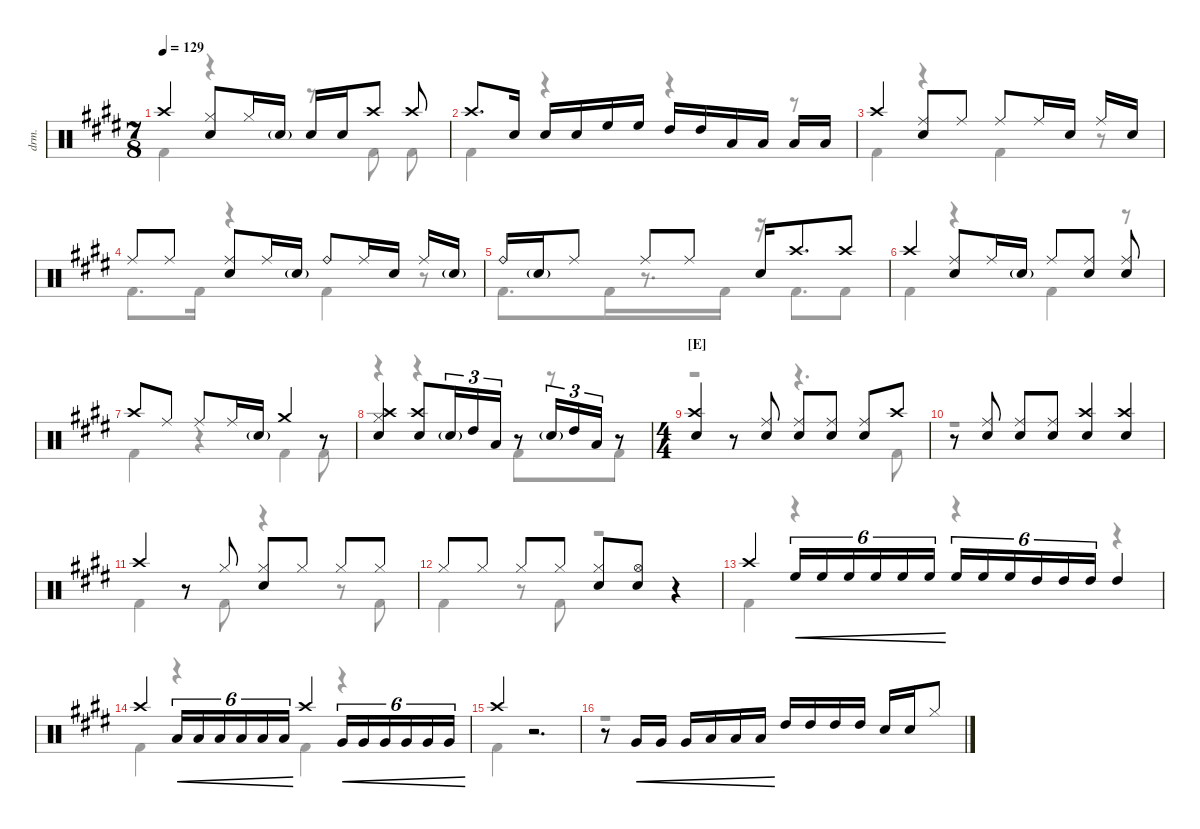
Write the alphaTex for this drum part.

\defaultSystemsLayout 4
\hideDynamics
\bracketExtendMode nobrackets
\track ("Drums" "drm.") {instrument percussion}
\staff {score}
\articulation defaults
\voice
\ts (7 8)
\tempo 129
\clef neutral
\ks e "Crash high (hit)"{acc forcenatural}.4{dy mf}
("Hi-Hat (closed)"{acc forcenatural} "Snare (hit) 2"{acc forcenatural}).8 "Hi-Hat (closed)"{acc forcenatural}.16 "Snare (hit) 2"{g acc forcenatural}.16{beam split} "Snare (hit) 2"{acc forcenatural}.16 "Snare (hit) 2"{acc forcenatural}.16 "Crash high (hit)"{acc forcenatural}.8{beam split} "Crash high (hit)"{acc forcenatural}.8 |
"Crash high (hit)"{acc forcenatural}.8{d} "Snare (hit) 2"{acc forcenatural}.16{beam split} "Snare (hit) 2"{acc forcenatural}.16 "Snare (hit) 2"{acc forcenatural}.16{beam merge} "High Floor Tom (hit)"{acc forcenatural}.16 "High Floor Tom (hit)"{acc forcenatural}.16{beam split} "High Tom (hit)"{acc forcenatural}.16 "High Tom (hit)"{acc forcenatural}.16{beam merge} "Low Tom (hit)"{acc forcenatural}.16 "Low Tom (hit)"{acc forcenatural}.16{beam split} "Low Tom (hit)"{acc forcenatural}.16 "Low Tom (hit)"{acc forcenatural}.16 |
"Crash high (hit)"{acc forcenatural}.4 ("Ride (middle)"{acc forcenatural} "Snare (hit) 2"{acc forcenatural}).8{beam merge} "Ride (middle)"{acc forcenatural}.8{beam split} "Ride (middle)"{acc forcenatural}.8{beam merge} "Ride (middle)"{acc forcenatural}.16 "Snare (hit) 2"{acc forcenatural}.16{beam split} "Ride (middle)"{acc forcenatural}.16 "Snare (hit) 2"{acc forcenatural}.16 |
"Ride (middle)"{acc forcenatural}.8 "Ride (middle)"{acc forcenatural}.8{beam split} ("Ride (middle)"{acc forcenatural} "Snare (hit) 2"{acc forcenatural}).8{beam merge} "Ride (middle)"{acc forcenatural}.16 "Snare (hit) 2"{g acc forcenatural}.16{beam split} "Ride (bell)"{acc forcenatural}.8{beam merge} "Ride (middle)"{acc forcenatural}.16 "Snare (hit) 2"{acc forcenatural}.16{beam split} "Ride (middle)"{acc forcenatural}.16 "Snare (hit) 2"{g acc forcenatural}.16 |
"Ride (bell)"{acc forcenatural}.16 "Snare (hit) 2"{g acc forcenatural}.16 "Ride (middle)"{acc forcenatural}.8{beam split} "Ride (middle)"{acc forcenatural}.8{beam merge} "Ride (middle)"{acc forcenatural}.8{beam split} "Snare (hit) 2"{acc forcenatural}.16{beam merge} "Crash high (hit)"{acc forcenatural}.8{d} "Crash high (hit)"{acc forcenatural}.8 |
"Crash high (hit)"{acc forcenatural}.4 ("Ride (middle)"{acc forcenatural} "Snare (hit) 2"{acc forcenatural}).8{beam merge} "Ride (middle)"{acc forcenatural}.16 "Snare (hit) 2"{g acc forcenatural}.16{beam split} "Ride (middle)"{acc forcenatural}.8{beam merge} ("Ride (middle)"{acc forcenatural} "Snare (hit) 2"{acc forcenatural}).8{beam split} ("Ride (middle)"{acc forcenatural} "Snare (hit) 2"{acc forcenatural}).8 |
"Crash high (hit)"{acc forcenatural}.8 "Ride (middle)"{acc forcenatural}.8{beam split} "Ride (middle)"{acc forcenatural}.8{beam merge} "Ride (middle)"{acc forcenatural}.16 "Snare (hit) 2"{g acc forcenatural}.16 "Crash medium (hit)"{acc forcenatural}.4 r.8 |
("Hi-Hat (closed)"{acc forcenatural} "Crash high (hit)"{acc forcenatural} "Snare (hit) 2"{acc forcenatural}).4 ("Snare (hit) 2"{acc forcenatural} "Crash high (hit)"{acc forcenatural}).8{beam merge} "Snare (hit) 2"{g acc forcenatural}.16{tu (3 2)} "High Tom (hit)"{acc forcenatural}.16{tu (3 2)} "Low Tom (hit)"{acc forcenatural}.16{tu (3 2)} r.8 "Snare (hit) 2"{g acc forcenatural}.16{tu (3 2)} "High Tom (hit)"{acc forcenatural}.16{tu (3 2)} "Low Tom (hit)"{acc forcenatural}.16{tu (3 2)} r.8 |
\ts (4 4)
\beaming (8 2 2 2 2)
\section ("E" "")
("Crash high (hit)"{acc forcenatural} "Snare (hit) 2"{acc forcenatural}).4 r.8 ("Ride (middle)"{acc forcenatural} "Snare (hit) 2"{acc forcenatural}).8 ("Snare (hit) 2"{acc forcenatural} "Ride (middle)"{acc forcenatural}).8 ("Snare (hit) 2"{acc forcenatural} "Ride (middle)"{acc forcenatural}).8 ("Ride (middle)"{acc forcenatural} "Snare (hit) 2"{acc forcenatural}).8 "Crash high (hit)"{acc forcenatural}.8 |
r.8 ("Ride (middle)"{acc forcenatural} "Snare (hit) 2"{acc forcenatural}).8 ("Ride (middle)"{acc forcenatural} "Snare (hit) 2"{acc forcenatural}).8 ("Ride (middle)"{acc forcenatural} "Snare (hit) 2"{acc forcenatural}).8 ("Crash high (hit)"{acc forcenatural} "Snare (hit) 2"{acc forcenatural}).4 ("Crash high (hit)"{acc forcenatural} "Snare (hit) 2"{acc forcenatural}).4 |
"Crash high (hit)"{acc forcenatural}.4 r.8 "Hi-Hat (closed)"{acc forcenatural}.8 ("Hi-Hat (closed)"{acc forcenatural} "Snare (hit) 2"{acc forcenatural}).8 "Hi-Hat (closed)"{acc forcenatural}.8 "Hi-Hat (closed)"{acc forcenatural}.8 "Hi-Hat (closed)"{acc forcenatural}.8 |
"Hi-Hat (closed)"{acc forcenatural}.8 "Hi-Hat (closed)"{acc forcenatural}.8 "Hi-Hat (closed)"{acc forcenatural}.8 "Hi-Hat (closed)"{acc forcenatural}.8 ("Hi-Hat (closed)"{acc forcenatural} "Snare (hit) 2"{acc forcenatural}).8 ("Hi-Hat (open)"{acc forcenatural} "Snare (hit) 2"{acc forcenatural}).8 r.4 |
"Crash high (hit)"{acc forcenatural}.4 "High Floor Tom (hit)"{acc forcenatural}.16{tu (6 4) cre} "High Floor Tom (hit)"{acc forcenatural}.16{tu (6 4) cre} "High Floor Tom (hit)"{acc forcenatural}.16{tu (6 4) cre} "High Floor Tom (hit)"{acc forcenatural}.16{tu (6 4) cre} "High Floor Tom (hit)"{acc forcenatural}.16{tu (6 4) cre} "High Floor Tom (hit)"{acc forcenatural}.16{tu (6 4) cre} "High Floor Tom (hit)"{acc forcenatural}.16{tu (6 4)} "High Floor Tom (hit)"{acc forcenatural}.16{tu (6 4)} "High Floor Tom (hit)"{acc forcenatural}.16{tu (6 4)} "High Tom (hit)"{acc forcenatural}.16{tu (6 4)} "High Tom (hit)"{acc forcenatural}.16{tu (6 4)} "High Tom (hit)"{acc forcenatural}.16{tu (6 4)} "High Tom (hit)"{acc forcenatural}.4 |
"Crash high (hit)"{acc forcenatural}.4 "Low Tom (hit)"{acc forcenatural}.16{tu (6 4) cre} "Low Tom (hit)"{acc forcenatural}.16{tu (6 4) cre} "Low Tom (hit)"{acc forcenatural}.16{tu (6 4) cre} "Low Tom (hit)"{acc forcenatural}.16{tu (6 4) cre} "Low Tom (hit)"{acc forcenatural}.16{tu (6 4) cre} "Low Tom (hit)"{acc forcenatural}.16{tu (6 4) cre} "Crash high (hit)"{acc forcenatural}.4 "Very Low Tom (hit)"{acc forcenatural}.16{tu (6 4) cre} "Very Low Tom (hit)"{acc forcenatural}.16{tu (6 4) cre} "Very Low Tom (hit)"{acc forcenatural}.16{tu (6 4) cre} "Very Low Tom (hit)"{acc forcenatural}.16{tu (6 4) cre} "Very Low Tom (hit)"{acc forcenatural}.16{tu (6 4) cre} "Very Low Tom (hit)"{acc forcenatural}.16{tu (6 4) cre} |
"Crash high (hit)"{acc forcenatural}.4 r.2{d} |
r.8 "Very Low Tom (hit)"{acc forcenatural}.16{cre} "Very Low Tom (hit)"{acc forcenatural}.16{cre} "Very Low Tom (hit)"{acc forcenatural}.16{cre} "Low Tom (hit)"{acc forcenatural}.16{cre} "Low Tom (hit)"{acc forcenatural}.16{cre} "Low Tom (hit)"{acc forcenatural}.16{cre} "High Tom (hit)"{acc forcenatural}.16 "High Tom (hit)"{acc forcenatural}.16 "High Tom (hit)"{acc forcenatural}.16 "High Tom (hit)"{acc forcenatural}.16 "Snare (hit) 2"{acc forcenatural}.16 "Snare (hit) 2"{acc forcenatural}.16 "Hi-Hat (closed)"{acc forcenatural}.8
\voice
\clef neutral
\ottava regular
\simile none
\ks e "Kick (hit) 2"{acc forcenatural}.4{dy mf}
r.4 r.8 "Kick (hit) 2"{acc forcenatural}.8{beam split} "Kick (hit) 2"{acc forcenatural}.8 |
"Kick (hit) 2"{acc forcenatural}.4 r.4 r.4 r.8 |
"Kick (hit) 2"{acc forcenatural}.4 r.4 "Kick (hit) 2"{acc forcenatural}.4 r.8 |
"Kick (hit) 2"{acc forcenatural}.8{d} "Kick (hit) 2"{acc forcenatural}.16 r.4 "Kick (hit) 2"{acc forcenatural}.4 r.8 |
"Kick (hit) 2"{acc forcenatural}.8{d} "Kick (hit) 2"{acc forcenatural}.16 r.8{d} "Kick (hit) 2"{acc forcenatural}.16{beam split} r.16{beam split} "Kick (hit) 2"{acc forcenatural}.8{d} "Kick (hit) 2"{acc forcenatural}.8 |
"Kick (hit) 2"{acc forcenatural}.4 r.4 "Kick (hit) 2"{acc forcenatural}.4 r.8 |
"Kick (hit) 2"{acc forcenatural}.4 r.4 "Kick (hit) 2"{acc forcenatural}.4 "Kick (hit) 2"{acc forcenatural}.8 |
r.4 r.4 "Kick (hit) 2"{acc forcenatural}.8 r.8 "Kick (hit) 2"{acc forcenatural}.8 |
r.2 r.4{d} "Kick (hit) 2"{acc forcenatural}.8 |
r.1 |
"Kick (hit) 2"{acc forcenatural}.4 r.8 "Kick (hit) 2"{acc forcenatural}.8 r.4 r.8 "Kick (hit) 2"{acc forcenatural}.8 |
"Kick (hit) 2"{acc forcenatural}.4 r.8 "Kick (hit) 2"{acc forcenatural}.8 r.2 |
"Kick (hit) 2"{acc forcenatural}.4 r.4 r.4 r.4 |
"Kick (hit) 2"{acc forcenatural}.4 r.4 "Kick (hit) 2"{acc forcenatural}.4 r.4 |
"Kick (hit) 2"{acc forcenatural}.4 r.2{d} |
r.1
